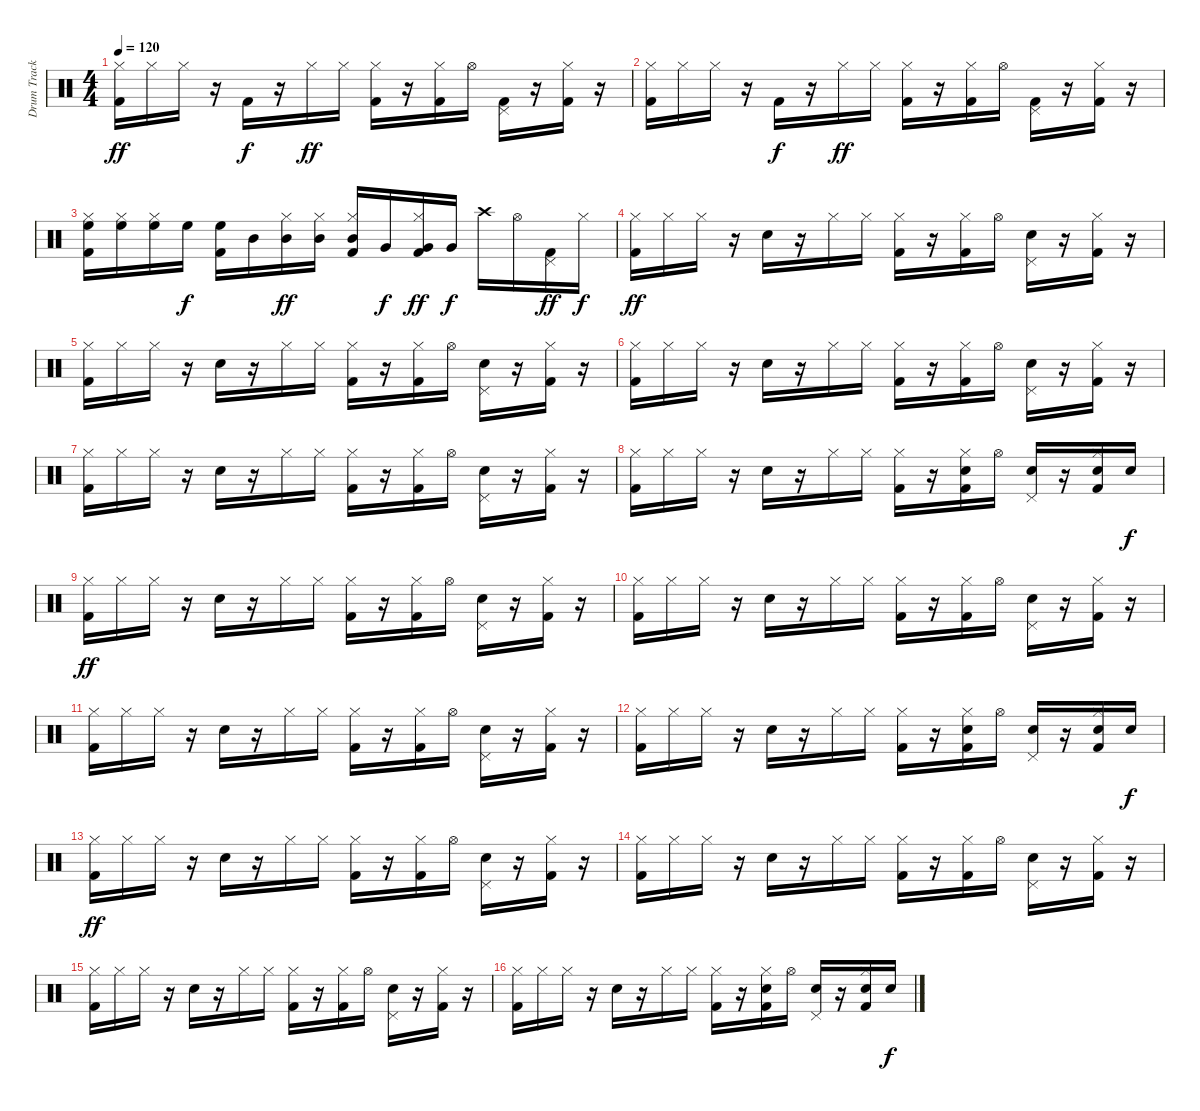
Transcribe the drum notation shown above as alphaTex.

\track ("Drum Track" "Drum Track") {instrument percussion}
\staff {score}
\articulation defaults
\ts (4 4)
\tempo 120
\clef neutral
\ks c
("Kick (hit) 2" "Hi-Hat (closed)").16{dy ff} "Hi-Hat (closed)".16 "Hi-Hat (closed)".16 r.16 "Kick (hit) 2".16{dy f} r.16 "Hi-Hat (closed)".16{dy ff} "Hi-Hat (closed)".16 ("Kick (hit) 2" "Hi-Hat (closed)").16 r.16 ("Kick (hit) 2" "Hi-Hat (closed)").16 "Hi-Hat (open)".16 ("Pedal Hi-Hat (hit)" "Kick (hit) 2").16 r.16 ("Kick (hit) 2" "Hi-Hat (closed)").16 r.16 |
("Kick (hit) 2" "Hi-Hat (closed)").16 "Hi-Hat (closed)".16 "Hi-Hat (closed)".16 r.16 "Kick (hit) 2".16{dy f} r.16 "Hi-Hat (closed)".16{dy ff} "Hi-Hat (closed)".16 ("Kick (hit) 2" "Hi-Hat (closed)").16 r.16 ("Kick (hit) 2" "Hi-Hat (closed)").16 "Hi-Hat (open)".16 ("Pedal Hi-Hat (hit)" "Kick (hit) 2").16 r.16 ("Kick (hit) 2" "Hi-Hat (closed)").16 r.16 |
("Kick (hit) 2" "Hi-Hat (closed)" "High Floor Tom (hit)").16 ("Hi-Hat (closed)" "High Floor Tom (hit)").16 ("Hi-Hat (closed)" "High Floor Tom (hit)").16 "High Floor Tom (hit)".16{dy f} ("High Floor Tom (hit)" "Kick (hit) 2").16 "Mid Tom (hit)".16 ("Hi-Hat (closed)" "Mid Tom (hit)").16{dy ff} ("Hi-Hat (closed)" "Mid Tom (hit)").16 ("Kick (hit) 2" "Hi-Hat (closed)" "Mid Tom (hit)").16 "Very Low Tom (hit)".16{dy f} ("Kick (hit) 2" "Hi-Hat (closed)" "Very Low Tom (hit)").16{dy ff} "Very Low Tom (hit)".16{dy f} "Crash high (hit)".16 "Hi-Hat (open)".16 ("Kick (hit) 2" "Pedal Hi-Hat (hit)").16{dy ff} "Hi-Hat (closed)".16{dy f} |
("Kick (hit) 2" "Hi-Hat (closed)").16{dy ff} "Hi-Hat (closed)".16 "Hi-Hat (closed)".16 r.16 "Snare (hit) 2".16 r.16 "Hi-Hat (closed)".16 "Hi-Hat (closed)".16 ("Kick (hit) 2" "Hi-Hat (closed)").16 r.16 ("Kick (hit) 2" "Hi-Hat (closed)").16 "Hi-Hat (open)".16 ("Snare (hit) 2" "Pedal Hi-Hat (hit)").16 r.16 ("Kick (hit) 2" "Hi-Hat (closed)").16 r.16 |
("Kick (hit) 2" "Hi-Hat (closed)").16 "Hi-Hat (closed)".16 "Hi-Hat (closed)".16 r.16 "Snare (hit) 2".16 r.16 "Hi-Hat (closed)".16 "Hi-Hat (closed)".16 ("Kick (hit) 2" "Hi-Hat (closed)").16 r.16 ("Kick (hit) 2" "Hi-Hat (closed)").16 "Hi-Hat (open)".16 ("Snare (hit) 2" "Pedal Hi-Hat (hit)").16 r.16 ("Kick (hit) 2" "Hi-Hat (closed)").16 r.16 |
("Kick (hit) 2" "Hi-Hat (closed)").16 "Hi-Hat (closed)".16 "Hi-Hat (closed)".16 r.16 "Snare (hit) 2".16 r.16 "Hi-Hat (closed)".16 "Hi-Hat (closed)".16 ("Kick (hit) 2" "Hi-Hat (closed)").16 r.16 ("Kick (hit) 2" "Hi-Hat (closed)").16 "Hi-Hat (open)".16 ("Snare (hit) 2" "Pedal Hi-Hat (hit)").16 r.16 ("Kick (hit) 2" "Hi-Hat (closed)").16 r.16 |
("Kick (hit) 2" "Hi-Hat (closed)").16 "Hi-Hat (closed)".16 "Hi-Hat (closed)".16 r.16 "Snare (hit) 2".16 r.16 "Hi-Hat (closed)".16 "Hi-Hat (closed)".16 ("Kick (hit) 2" "Hi-Hat (closed)").16 r.16 ("Kick (hit) 2" "Hi-Hat (closed)").16 "Hi-Hat (open)".16 ("Snare (hit) 2" "Pedal Hi-Hat (hit)").16 r.16 ("Kick (hit) 2" "Hi-Hat (closed)").16 r.16 |
("Kick (hit) 2" "Hi-Hat (closed)").16 "Hi-Hat (closed)".16 "Hi-Hat (closed)".16 r.16 "Snare (hit) 2".16 r.16 "Hi-Hat (closed)".16 "Hi-Hat (closed)".16 ("Kick (hit) 2" "Hi-Hat (closed)").16 r.16 ("Kick (hit) 2" "Hi-Hat (closed)" "Snare (hit) 2").16 "Hi-Hat (open)".16 ("Snare (hit) 2" "Pedal Hi-Hat (hit)").16 r.16 ("Kick (hit) 2" "Hi-Hat (closed)" "Snare (hit) 2").16 "Snare (hit) 2".16{dy f} |
("Kick (hit) 2" "Hi-Hat (closed)").16{dy ff} "Hi-Hat (closed)".16 "Hi-Hat (closed)".16 r.16 "Snare (hit) 2".16 r.16 "Hi-Hat (closed)".16 "Hi-Hat (closed)".16 ("Kick (hit) 2" "Hi-Hat (closed)").16 r.16 ("Kick (hit) 2" "Hi-Hat (closed)").16 "Hi-Hat (open)".16 ("Snare (hit) 2" "Pedal Hi-Hat (hit)").16 r.16 ("Kick (hit) 2" "Hi-Hat (closed)").16 r.16 |
("Kick (hit) 2" "Hi-Hat (closed)").16 "Hi-Hat (closed)".16 "Hi-Hat (closed)".16 r.16 "Snare (hit) 2".16 r.16 "Hi-Hat (closed)".16 "Hi-Hat (closed)".16 ("Kick (hit) 2" "Hi-Hat (closed)").16 r.16 ("Kick (hit) 2" "Hi-Hat (closed)").16 "Hi-Hat (open)".16 ("Snare (hit) 2" "Pedal Hi-Hat (hit)").16 r.16 ("Kick (hit) 2" "Hi-Hat (closed)").16 r.16 |
("Kick (hit) 2" "Hi-Hat (closed)").16 "Hi-Hat (closed)".16 "Hi-Hat (closed)".16 r.16 "Snare (hit) 2".16 r.16 "Hi-Hat (closed)".16 "Hi-Hat (closed)".16 ("Kick (hit) 2" "Hi-Hat (closed)").16 r.16 ("Kick (hit) 2" "Hi-Hat (closed)").16 "Hi-Hat (open)".16 ("Snare (hit) 2" "Pedal Hi-Hat (hit)").16 r.16 ("Kick (hit) 2" "Hi-Hat (closed)").16 r.16 |
("Kick (hit) 2" "Hi-Hat (closed)").16 "Hi-Hat (closed)".16 "Hi-Hat (closed)".16 r.16 "Snare (hit) 2".16 r.16 "Hi-Hat (closed)".16 "Hi-Hat (closed)".16 ("Kick (hit) 2" "Hi-Hat (closed)").16 r.16 ("Kick (hit) 2" "Hi-Hat (closed)" "Snare (hit) 2").16 "Hi-Hat (open)".16 ("Snare (hit) 2" "Pedal Hi-Hat (hit)").16 r.16 ("Kick (hit) 2" "Hi-Hat (closed)" "Snare (hit) 2").16 "Snare (hit) 2".16{dy f} |
("Kick (hit) 2" "Hi-Hat (closed)").16{dy ff} "Hi-Hat (closed)".16 "Hi-Hat (closed)".16 r.16 "Snare (hit) 2".16 r.16 "Hi-Hat (closed)".16 "Hi-Hat (closed)".16 ("Kick (hit) 2" "Hi-Hat (closed)").16 r.16 ("Kick (hit) 2" "Hi-Hat (closed)").16 "Hi-Hat (open)".16 ("Snare (hit) 2" "Pedal Hi-Hat (hit)").16 r.16 ("Kick (hit) 2" "Hi-Hat (closed)").16 r.16 |
("Kick (hit) 2" "Hi-Hat (closed)").16 "Hi-Hat (closed)".16 "Hi-Hat (closed)".16 r.16 "Snare (hit) 2".16 r.16 "Hi-Hat (closed)".16 "Hi-Hat (closed)".16 ("Kick (hit) 2" "Hi-Hat (closed)").16 r.16 ("Kick (hit) 2" "Hi-Hat (closed)").16 "Hi-Hat (open)".16 ("Snare (hit) 2" "Pedal Hi-Hat (hit)").16 r.16 ("Kick (hit) 2" "Hi-Hat (closed)").16 r.16 |
("Kick (hit) 2" "Hi-Hat (closed)").16 "Hi-Hat (closed)".16 "Hi-Hat (closed)".16 r.16 "Snare (hit) 2".16 r.16 "Hi-Hat (closed)".16 "Hi-Hat (closed)".16 ("Kick (hit) 2" "Hi-Hat (closed)").16 r.16 ("Kick (hit) 2" "Hi-Hat (closed)").16 "Hi-Hat (open)".16 ("Snare (hit) 2" "Pedal Hi-Hat (hit)").16 r.16 ("Kick (hit) 2" "Hi-Hat (closed)").16 r.16 |
("Kick (hit) 2" "Hi-Hat (closed)").16 "Hi-Hat (closed)".16 "Hi-Hat (closed)".16 r.16 "Snare (hit) 2".16 r.16 "Hi-Hat (closed)".16 "Hi-Hat (closed)".16 ("Kick (hit) 2" "Hi-Hat (closed)").16 r.16 ("Kick (hit) 2" "Hi-Hat (closed)" "Snare (hit) 2").16 "Hi-Hat (open)".16 ("Snare (hit) 2" "Pedal Hi-Hat (hit)").16 r.16 ("Kick (hit) 2" "Hi-Hat (closed)" "Snare (hit) 2").16 "Snare (hit) 2".16{dy f}
